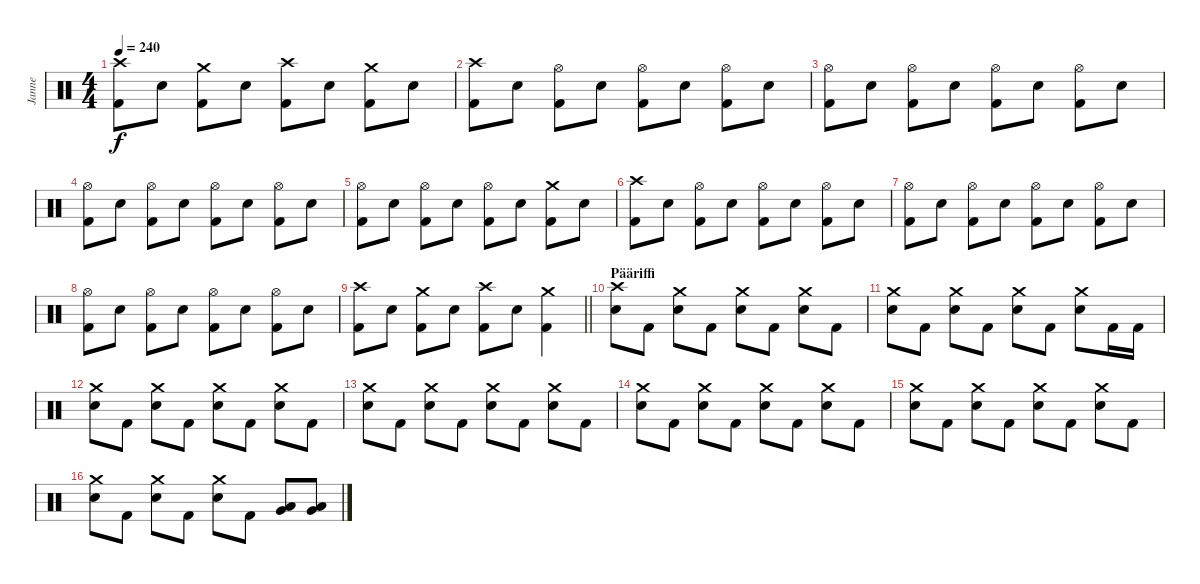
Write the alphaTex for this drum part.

\track ("Janne" "Janne") {instrument percussion}
\staff {score}
\articulation defaults
\ts (4 4)
\tempo 240
\clef neutral
\ks c
("Crash high (hit)" "Kick (hit) 2").8{dy f} "Electric Snare (hit)".8 ("Crash medium (hit)" "Kick (hit) 2").8 "Electric Snare (hit)".8 ("Crash high (hit)" "Kick (hit) 2").8 "Electric Snare (hit)".8 ("Crash medium (hit)" "Kick (hit) 2").8 "Electric Snare (hit)".8 |
("Crash high (hit)" "Kick (hit) 2").8 "Electric Snare (hit)".8 ("Hi-Hat (open)" "Kick (hit) 2").8 "Electric Snare (hit)".8 ("Hi-Hat (open)" "Kick (hit) 2").8 "Electric Snare (hit)".8 ("Hi-Hat (open)" "Kick (hit) 2").8 "Electric Snare (hit)".8 |
("Hi-Hat (open)" "Kick (hit) 2").8 "Electric Snare (hit)".8 ("Hi-Hat (open)" "Kick (hit) 2").8 "Electric Snare (hit)".8 ("Hi-Hat (open)" "Kick (hit) 2").8 "Electric Snare (hit)".8 ("Hi-Hat (open)" "Kick (hit) 2").8 "Electric Snare (hit)".8 |
("Hi-Hat (open)" "Kick (hit) 2").8 "Electric Snare (hit)".8 ("Hi-Hat (open)" "Kick (hit) 2").8 "Electric Snare (hit)".8 ("Hi-Hat (open)" "Kick (hit) 2").8 "Electric Snare (hit)".8 ("Hi-Hat (open)" "Kick (hit) 2").8 "Electric Snare (hit)".8 |
("Hi-Hat (open)" "Kick (hit) 2").8 "Electric Snare (hit)".8 ("Hi-Hat (open)" "Kick (hit) 2").8 "Electric Snare (hit)".8 ("Hi-Hat (open)" "Kick (hit) 2").8 "Electric Snare (hit)".8 ("Crash medium (hit)" "Kick (hit) 2").8 "Electric Snare (hit)".8 |
("Crash high (hit)" "Kick (hit) 2").8 "Electric Snare (hit)".8 ("Hi-Hat (open)" "Kick (hit) 2").8 "Electric Snare (hit)".8 ("Hi-Hat (open)" "Kick (hit) 2").8 "Electric Snare (hit)".8 ("Hi-Hat (open)" "Kick (hit) 2").8 "Electric Snare (hit)".8 |
("Hi-Hat (open)" "Kick (hit) 2").8 "Electric Snare (hit)".8 ("Hi-Hat (open)" "Kick (hit) 2").8 "Electric Snare (hit)".8 ("Hi-Hat (open)" "Kick (hit) 2").8 "Electric Snare (hit)".8 ("Hi-Hat (open)" "Kick (hit) 2").8 "Electric Snare (hit)".8 |
("Hi-Hat (open)" "Kick (hit) 2").8 "Electric Snare (hit)".8 ("Hi-Hat (open)" "Kick (hit) 2").8 "Electric Snare (hit)".8 ("Hi-Hat (open)" "Kick (hit) 2").8 "Electric Snare (hit)".8 ("Hi-Hat (open)" "Kick (hit) 2").8 "Electric Snare (hit)".8 |
\barLineRight lightlight
("Crash high (hit)" "Kick (hit) 2").8 "Electric Snare (hit)".8 ("Crash medium (hit)" "Kick (hit) 2").8 "Electric Snare (hit)".8 ("Crash high (hit)" "Kick (hit) 2").8 "Electric Snare (hit)".8 ("Crash medium (hit)" "Kick (hit) 2").4 |
\section ("" "Pääriffi")
("Crash high (hit)" "Electric Snare (hit)").8 "Kick (hit) 2".8 ("Crash medium (hit)" "Electric Snare (hit)").8 "Kick (hit) 2".8 ("Crash medium (hit)" "Electric Snare (hit)").8 "Kick (hit) 2".8 ("Crash medium (hit)" "Electric Snare (hit)").8 "Kick (hit) 2".8 |
("Crash medium (hit)" "Electric Snare (hit)").8 "Kick (hit) 2".8 ("Crash medium (hit)" "Electric Snare (hit)").8 "Kick (hit) 2".8 ("Crash medium (hit)" "Electric Snare (hit)").8 "Kick (hit) 2".8 ("Crash medium (hit)" "Electric Snare (hit)").8 "Kick (hit) 2".16 "Kick (hit) 2".16 |
("Crash medium (hit)" "Electric Snare (hit)").8 "Kick (hit) 2".8 ("Crash medium (hit)" "Electric Snare (hit)").8 "Kick (hit) 2".8 ("Crash medium (hit)" "Electric Snare (hit)").8 "Kick (hit) 2".8 ("Crash medium (hit)" "Electric Snare (hit)").8 "Kick (hit) 2".8 |
("Crash medium (hit)" "Electric Snare (hit)").8 "Kick (hit) 2".8 ("Crash medium (hit)" "Electric Snare (hit)").8 "Kick (hit) 2".8 ("Crash medium (hit)" "Electric Snare (hit)").8 "Kick (hit) 2".8 ("Crash medium (hit)" "Electric Snare (hit)").8 "Kick (hit) 2".8 |
("Crash medium (hit)" "Electric Snare (hit)").8 "Kick (hit) 2".8 ("Crash medium (hit)" "Electric Snare (hit)").8 "Kick (hit) 2".8 ("Crash medium (hit)" "Electric Snare (hit)").8 "Kick (hit) 2".8 ("Crash medium (hit)" "Electric Snare (hit)").8 "Kick (hit) 2".8 |
("Crash medium (hit)" "Electric Snare (hit)").8 "Kick (hit) 2".8 ("Crash medium (hit)" "Electric Snare (hit)").8 "Kick (hit) 2".8 ("Crash medium (hit)" "Electric Snare (hit)").8 "Kick (hit) 2".8 ("Crash medium (hit)" "Electric Snare (hit)").8 "Kick (hit) 2".8 |
("Crash medium (hit)" "Electric Snare (hit)").8 "Kick (hit) 2".8 ("Crash medium (hit)" "Electric Snare (hit)").8 "Kick (hit) 2".8 ("Crash medium (hit)" "Electric Snare (hit)").8 "Kick (hit) 2".8 ("Very Low Tom (hit)" "Low Floor Tom (hit)").8 ("Very Low Tom (hit)" "Low Floor Tom (hit)").8
